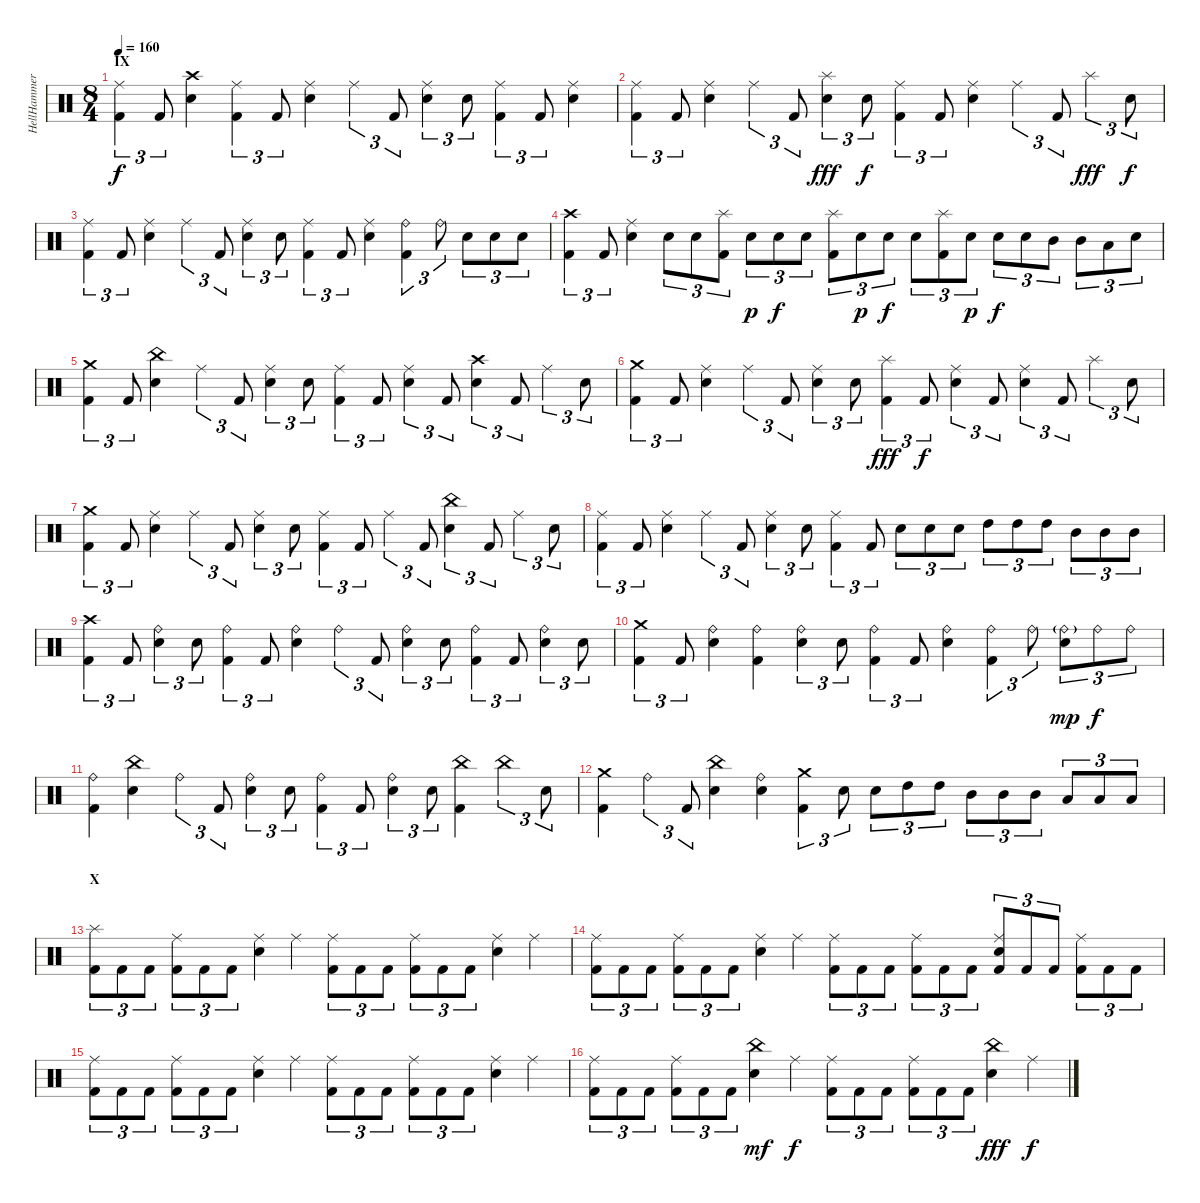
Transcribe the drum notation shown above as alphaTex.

\track ("HellHammer" "HellHammer") {instrument percussion}
\staff {score}
\articulation defaults
\ts (8 4)
\section ("" "IX")
\tempo 160
\clef neutral
\ks c
("Kick (hit) 2" "Ride (middle)").4{tu (3 2) dy f} "Kick (hit) 2".8{tu (3 2)} ("Electric Snare (hit)" "Crash high (hit)").4 ("Kick (hit) 2" "Ride (middle)").4{tu (3 2)} "Kick (hit) 2".8{tu (3 2)} ("Electric Snare (hit)" "Ride (middle)").4 "Ride (middle)".4{tu (3 2)} "Kick (hit) 2".8{tu (3 2)} ("Electric Snare (hit)" "Ride (middle)").4{tu (3 2)} "Electric Snare (hit)".8{tu (3 2)} ("Kick (hit) 2" "Ride (middle)").4{tu (3 2)} "Kick (hit) 2".8{tu (3 2)} ("Electric Snare (hit)" "Ride (middle)").4 |
("Kick (hit) 2" "Ride (middle)").4{tu (3 2)} "Kick (hit) 2".8{tu (3 2)} ("Electric Snare (hit)" "Ride (middle)").4 "Ride (middle)".4{tu (3 2)} "Kick (hit) 2".8{tu (3 2)} ("Electric Snare (hit)" "Splash (hit)").4{tu (3 2) dy fff} "Electric Snare (hit)".8{tu (3 2) dy f} ("Kick (hit) 2" "Ride (middle)").4{tu (3 2)} "Kick (hit) 2".8{tu (3 2)} ("Electric Snare (hit)" "Ride (middle)").4 "Ride (middle)".4{tu (3 2)} "Kick (hit) 2".8{tu (3 2)} "Splash (hit)".4{tu (3 2) dy fff} "Electric Snare (hit)".8{tu (3 2) dy f} |
("Kick (hit) 2" "Ride (middle)").4{tu (3 2)} "Kick (hit) 2".8{tu (3 2)} ("Electric Snare (hit)" "Ride (middle)").4 "Ride (middle)".4{tu (3 2)} "Kick (hit) 2".8{tu (3 2)} ("Electric Snare (hit)" "Ride (middle)").4{tu (3 2)} "Electric Snare (hit)".8{tu (3 2)} ("Kick (hit) 2" "Ride (middle)").4{tu (3 2)} "Kick (hit) 2".8{tu (3 2)} ("Electric Snare (hit)" "Ride (middle)").4 ("Kick (hit) 2" "Ride (bell)").4{tu (3 2)} "Ride (bell)".8{tu (3 2)} "Electric Snare (hit)".8{tu (3 2)} "Electric Snare (hit)".8{tu (3 2)} "Electric Snare (hit)".8{tu (3 2)} |
("Kick (hit) 2" "Crash high (hit)").4{tu (3 2)} "Kick (hit) 2".8{tu (3 2)} ("Electric Snare (hit)" "Ride (middle)").4 "Electric Snare (hit)".8{tu (3 2)} "Electric Snare (hit)".8{tu (3 2)} ("Kick (hit) 2" "Splash (hit)").8{tu (3 2)} "Electric Snare (hit)".8{tu (3 2) dy p} "Electric Snare (hit)".8{tu (3 2) dy f} "Electric Snare (hit)".8{tu (3 2)} ("Kick (hit) 2" "Splash (hit)").8{tu (3 2)} "Electric Snare (hit)".8{tu (3 2) dy p} "Electric Snare (hit)".8{tu (3 2) dy f} "Electric Snare (hit)".8{tu (3 2)} ("Kick (hit) 2" "Splash (hit)").8{tu (3 2)} "Electric Snare (hit)".8{tu (3 2) dy p} "Electric Snare (hit)".8{tu (3 2) dy f} "Electric Snare (hit)".8{tu (3 2)} "Mid Tom (hit)".8{tu (3 2)} "Mid Tom (hit)".8{tu (3 2)} "Low Tom (hit)".8{tu (3 2)} "Electric Snare (hit)".8{tu (3 2)} |
("Kick (hit) 2" "Crash medium (hit)").4{tu (3 2)} "Kick (hit) 2".8{tu (3 2)} ("Electric Snare (hit)" "China (hit)").4 "Ride (middle)".4{tu (3 2)} "Kick (hit) 2".8{tu (3 2)} ("Electric Snare (hit)" "Ride (middle)").4{tu (3 2)} "Electric Snare (hit)".8{tu (3 2)} ("Kick (hit) 2" "Ride (middle)").4{tu (3 2)} "Kick (hit) 2".8{tu (3 2)} ("Electric Snare (hit)" "Ride (middle)").4{tu (3 2)} "Kick (hit) 2".8{tu (3 2)} ("Electric Snare (hit)" "Crash high (hit)").4{tu (3 2)} "Kick (hit) 2".8{tu (3 2)} "Ride (middle)".4{tu (3 2)} "Electric Snare (hit)".8{tu (3 2)} |
("Kick (hit) 2" "Crash medium (hit)").4{tu (3 2)} "Kick (hit) 2".8{tu (3 2)} ("Electric Snare (hit)" "Ride (middle)").4 "Ride (middle)".4{tu (3 2)} "Kick (hit) 2".8{tu (3 2)} ("Electric Snare (hit)" "Ride (middle)").4{tu (3 2)} "Electric Snare (hit)".8{tu (3 2)} ("Kick (hit) 2" "Splash (hit)").4{tu (3 2) dy fff} "Kick (hit) 2".8{tu (3 2) dy f} ("Electric Snare (hit)" "Ride (middle)").4{tu (3 2)} "Kick (hit) 2".8{tu (3 2)} ("Electric Snare (hit)" "Ride (middle)").4{tu (3 2)} "Kick (hit) 2".8{tu (3 2)} "Splash (hit)".4{tu (3 2)} "Electric Snare (hit)".8{tu (3 2)} |
("Kick (hit) 2" "Crash medium (hit)").4{tu (3 2)} "Kick (hit) 2".8{tu (3 2)} ("Electric Snare (hit)" "Ride (middle)").4 "Ride (middle)".4{tu (3 2)} "Kick (hit) 2".8{tu (3 2)} ("Electric Snare (hit)" "Ride (middle)").4{tu (3 2)} "Electric Snare (hit)".8{tu (3 2)} ("Kick (hit) 2" "Ride (middle)").4{tu (3 2)} "Kick (hit) 2".8{tu (3 2)} "Ride (middle)".4{tu (3 2)} "Kick (hit) 2".8{tu (3 2)} ("Electric Snare (hit)" "China (hit)").4{tu (3 2)} "Kick (hit) 2".8{tu (3 2)} "Ride (middle)".4{tu (3 2)} "Electric Snare (hit)".8{tu (3 2)} |
("Kick (hit) 2" "Ride (middle)").4{tu (3 2)} "Kick (hit) 2".8{tu (3 2)} ("Electric Snare (hit)" "Ride (middle)").4 "Ride (middle)".4{tu (3 2)} "Kick (hit) 2".8{tu (3 2)} ("Electric Snare (hit)" "Ride (middle)").4{tu (3 2)} "Electric Snare (hit)".8{tu (3 2)} ("Kick (hit) 2" "Ride (middle)").4{tu (3 2)} "Kick (hit) 2".8{tu (3 2)} "Electric Snare (hit)".8{tu (3 2)} "Electric Snare (hit)".8{tu (3 2)} "Electric Snare (hit)".8{tu (3 2)} "High Tom (hit)".8{tu (3 2)} "High Tom (hit)".8{tu (3 2)} "High Tom (hit)".8{tu (3 2)} "Mid Tom (hit)".8{tu (3 2)} "Mid Tom (hit)".8{tu (3 2)} "Mid Tom (hit)".8{tu (3 2)} |
("Kick (hit) 2" "Crash high (hit)").4{tu (3 2)} "Kick (hit) 2".8{tu (3 2)} ("Electric Snare (hit)" "Ride (bell)").4{tu (3 2)} "Electric Snare (hit)".8{tu (3 2)} ("Kick (hit) 2" "Ride (bell)").4{tu (3 2)} "Kick (hit) 2".8{tu (3 2)} ("Electric Snare (hit)" "Ride (bell)").4 "Ride (bell)".4{tu (3 2)} "Kick (hit) 2".8{tu (3 2)} ("Electric Snare (hit)" "Ride (bell)").4{tu (3 2)} "Electric Snare (hit)".8{tu (3 2)} ("Kick (hit) 2" "Ride (bell)").4{tu (3 2)} "Kick (hit) 2".8{tu (3 2)} ("Electric Snare (hit)" "Ride (bell)").4{tu (3 2)} "Electric Snare (hit)".8{tu (3 2)} |
("Kick (hit) 2" "Crash medium (hit)").4{tu (3 2)} "Kick (hit) 2".8{tu (3 2)} ("Electric Snare (hit)" "Ride (bell)").4 ("Kick (hit) 2" "Ride (bell)").4 ("Electric Snare (hit)" "Ride (bell)").4{tu (3 2)} "Electric Snare (hit)".8{tu (3 2)} ("Kick (hit) 2" "Ride (bell)").4{tu (3 2)} "Kick (hit) 2".8{tu (3 2)} ("Electric Snare (hit)" "Ride (bell)").4 ("Kick (hit) 2" "Ride (bell)").4{tu (3 2)} "Ride (bell)".8{tu (3 2)} ("Electric Snare (hit)" "Ride (bell)"{g}).8{tu (3 2) dy mp} "Ride (bell)".8{tu (3 2) dy f} "Ride (bell)".8{tu (3 2)} |
("Kick (hit) 2" "Ride (bell)").4 ("Electric Snare (hit)" "China (hit)").4 "Ride (bell)".4{tu (3 2)} "Kick (hit) 2".8{tu (3 2)} ("Electric Snare (hit)" "Ride (bell)").4{tu (3 2)} "Electric Snare (hit)".8{tu (3 2)} ("Kick (hit) 2" "Ride (bell)").4{tu (3 2)} "Kick (hit) 2".8{tu (3 2)} ("Electric Snare (hit)" "Ride (bell)").4{tu (3 2)} "Electric Snare (hit)".8{tu (3 2)} ("Kick (hit) 2" "China (hit)").4 "China (hit)".4{tu (3 2)} "Electric Snare (hit)".8{tu (3 2)} |
("Kick (hit) 2" "Crash medium (hit)").4 "Ride (bell)".4{tu (3 2)} "Kick (hit) 2".8{tu (3 2)} ("Electric Snare (hit)" "China (hit)").4 ("Electric Snare (hit)" "Ride (bell)").4 ("Kick (hit) 2" "Crash medium (hit)").4{tu (3 2)} "Electric Snare (hit)".8{tu (3 2)} "Electric Snare (hit)".8{tu (3 2)} "High Tom (hit)".8{tu (3 2)} "High Tom (hit)".8{tu (3 2)} "Mid Tom (hit)".8{tu (3 2)} "Mid Tom (hit)".8{tu (3 2)} "Mid Tom (hit)".8{tu (3 2)} "Low Tom (hit)".8{tu (3 2)} "Low Tom (hit)".8{tu (3 2)} "Low Tom (hit)".8{tu (3 2)} |
\section ("" "X")
("Kick (hit) 2" "Splash (hit)").8{tu (3 2)} "Kick (hit) 2".8{tu (3 2)} "Kick (hit) 2".8{tu (3 2)} ("Kick (hit) 2" "Ride (middle)").8{tu (3 2)} "Kick (hit) 2".8{tu (3 2)} "Kick (hit) 2".8{tu (3 2)} ("Electric Snare (hit)" "Ride (middle)").4 "Ride (middle)".4 ("Kick (hit) 2" "Ride (middle)").8{tu (3 2)} "Kick (hit) 2".8{tu (3 2)} "Kick (hit) 2".8{tu (3 2)} ("Kick (hit) 2" "Ride (middle)").8{tu (3 2)} "Kick (hit) 2".8{tu (3 2)} "Kick (hit) 2".8{tu (3 2)} ("Electric Snare (hit)" "Ride (middle)").4 "Ride (middle)".4 |
("Kick (hit) 2" "Ride (middle)").8{tu (3 2)} "Kick (hit) 2".8{tu (3 2)} "Kick (hit) 2".8{tu (3 2)} ("Kick (hit) 2" "Ride (middle)").8{tu (3 2)} "Kick (hit) 2".8{tu (3 2)} "Kick (hit) 2".8{tu (3 2)} ("Electric Snare (hit)" "Ride (middle)").4 "Ride (middle)".4 ("Kick (hit) 2" "Ride (middle)").8{tu (3 2)} "Kick (hit) 2".8{tu (3 2)} "Kick (hit) 2".8{tu (3 2)} ("Kick (hit) 2" "Ride (middle)").8{tu (3 2)} "Kick (hit) 2".8{tu (3 2)} "Kick (hit) 2".8{tu (3 2)} ("Kick (hit) 2" "Electric Snare (hit)" "Ride (middle)").8{tu (3 2)} "Kick (hit) 2".8{tu (3 2)} "Kick (hit) 2".8{tu (3 2)} ("Kick (hit) 2" "Ride (middle)").8{tu (3 2)} "Kick (hit) 2".8{tu (3 2)} "Kick (hit) 2".8{tu (3 2)} |
("Kick (hit) 2" "Ride (middle)").8{tu (3 2)} "Kick (hit) 2".8{tu (3 2)} "Kick (hit) 2".8{tu (3 2)} ("Kick (hit) 2" "Ride (middle)").8{tu (3 2)} "Kick (hit) 2".8{tu (3 2)} "Kick (hit) 2".8{tu (3 2)} ("Electric Snare (hit)" "Ride (middle)").4 "Ride (middle)".4 ("Kick (hit) 2" "Ride (middle)").8{tu (3 2)} "Kick (hit) 2".8{tu (3 2)} "Kick (hit) 2".8{tu (3 2)} ("Kick (hit) 2" "Ride (middle)").8{tu (3 2)} "Kick (hit) 2".8{tu (3 2)} "Kick (hit) 2".8{tu (3 2)} ("Electric Snare (hit)" "Ride (middle)").4 "Ride (middle)".4 |
("Kick (hit) 2" "Ride (middle)").8{tu (3 2)} "Kick (hit) 2".8{tu (3 2)} "Kick (hit) 2".8{tu (3 2)} ("Kick (hit) 2" "Ride (middle)").8{tu (3 2)} "Kick (hit) 2".8{tu (3 2)} "Kick (hit) 2".8{tu (3 2)} ("Electric Snare (hit)" "China (hit)").4{dy mf} "Ride (middle)".4{dy f} ("Kick (hit) 2" "Ride (middle)").8{tu (3 2)} "Kick (hit) 2".8{tu (3 2)} "Kick (hit) 2".8{tu (3 2)} ("Kick (hit) 2" "Ride (middle)").8{tu (3 2)} "Kick (hit) 2".8{tu (3 2)} "Kick (hit) 2".8{tu (3 2)} ("Electric Snare (hit)" "China (hit)").4{dy fff} "Ride (middle)".4{dy f}
